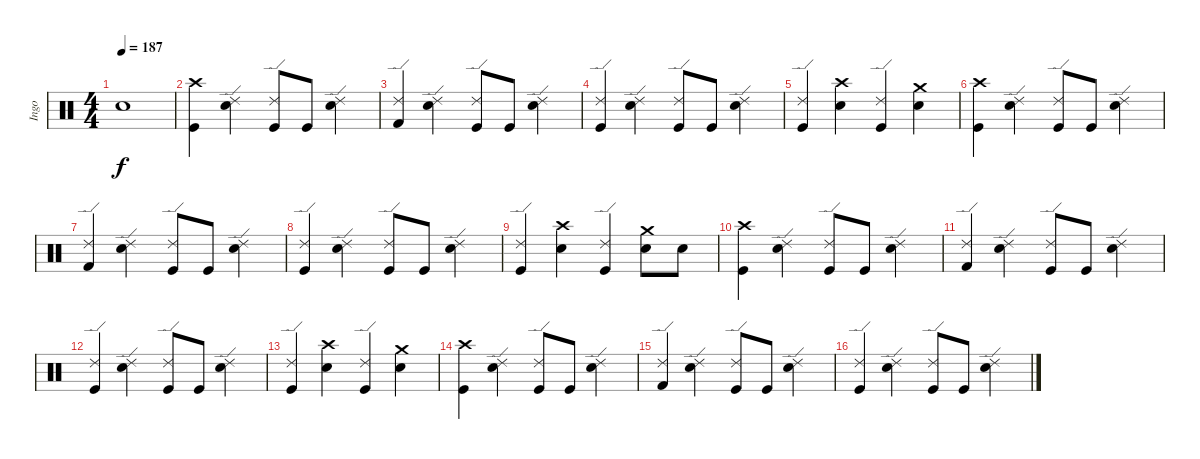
\track ("Ingo" "Ingo") {instrument percussion}
\staff {score}
\articulation defaults
\ts (4 4)
\tempo 187
\clef neutral
\ks c "Snare (hit) 2".1{dy f}
|
("Crash high (hit)" "Kick (hit)").4 ("Ride (edge) 2" "Snare (hit) 2").4 ("Ride (edge) 2" "Kick (hit)").8 "Kick (hit)".8 ("Ride (edge) 2" "Snare (hit) 2").4 |
("Ride (edge) 2" "Kick (hit) 2").4 ("Ride (edge) 2" "Snare (hit) 2").4 ("Ride (edge) 2" "Kick (hit)").8 "Kick (hit)".8 ("Ride (edge) 2" "Snare (hit) 2").4 |
("Ride (edge) 2" "Kick (hit)").4 ("Ride (edge) 2" "Snare (hit) 2").4 ("Ride (edge) 2" "Kick (hit)").8 "Kick (hit)".8 ("Ride (edge) 2" "Snare (hit) 2").4 |
("Ride (edge) 2" "Kick (hit)").4 ("Crash high (hit)" "Snare (hit) 2").4 ("Ride (edge) 2" "Kick (hit)").4 ("Crash medium (hit)" "Snare (hit) 2").4 |
("Crash high (hit)" "Kick (hit)").4 ("Ride (edge) 2" "Snare (hit) 2").4 ("Ride (edge) 2" "Kick (hit)").8 "Kick (hit)".8 ("Ride (edge) 2" "Snare (hit) 2").4 |
("Ride (edge) 2" "Kick (hit) 2").4 ("Ride (edge) 2" "Snare (hit) 2").4 ("Ride (edge) 2" "Kick (hit)").8 "Kick (hit)".8 ("Ride (edge) 2" "Snare (hit) 2").4 |
("Ride (edge) 2" "Kick (hit)").4 ("Ride (edge) 2" "Snare (hit) 2").4 ("Ride (edge) 2" "Kick (hit)").8 "Kick (hit)".8 ("Ride (edge) 2" "Snare (hit) 2").4 |
("Ride (edge) 2" "Kick (hit)").4 ("Crash high (hit)" "Snare (hit) 2").4 ("Ride (edge) 2" "Kick (hit)").4 ("Crash medium (hit)" "Snare (hit) 2").8 "Snare (hit) 2".8 |
("Crash high (hit)" "Kick (hit)").4 ("Ride (edge) 2" "Snare (hit) 2").4 ("Ride (edge) 2" "Kick (hit)").8 "Kick (hit)".8 ("Ride (edge) 2" "Snare (hit) 2").4 |
("Ride (edge) 2" "Kick (hit) 2").4 ("Ride (edge) 2" "Snare (hit) 2").4 ("Ride (edge) 2" "Kick (hit)").8 "Kick (hit)".8 ("Ride (edge) 2" "Snare (hit) 2").4 |
("Ride (edge) 2" "Kick (hit)").4 ("Ride (edge) 2" "Snare (hit) 2").4 ("Ride (edge) 2" "Kick (hit)").8 "Kick (hit)".8 ("Ride (edge) 2" "Snare (hit) 2").4 |
("Ride (edge) 2" "Kick (hit)").4 ("Crash high (hit)" "Snare (hit) 2").4 ("Ride (edge) 2" "Kick (hit)").4 ("Crash medium (hit)" "Snare (hit) 2").4 |
("Crash high (hit)" "Kick (hit)").4 ("Ride (edge) 2" "Snare (hit) 2").4 ("Ride (edge) 2" "Kick (hit)").8 "Kick (hit)".8 ("Ride (edge) 2" "Snare (hit) 2").4 |
("Ride (edge) 2" "Kick (hit) 2").4 ("Ride (edge) 2" "Snare (hit) 2").4 ("Ride (edge) 2" "Kick (hit)").8 "Kick (hit)".8 ("Ride (edge) 2" "Snare (hit) 2").4 |
("Ride (edge) 2" "Kick (hit)").4 ("Ride (edge) 2" "Snare (hit) 2").4 ("Ride (edge) 2" "Kick (hit)").8 "Kick (hit)".8 ("Ride (edge) 2" "Snare (hit) 2").4
